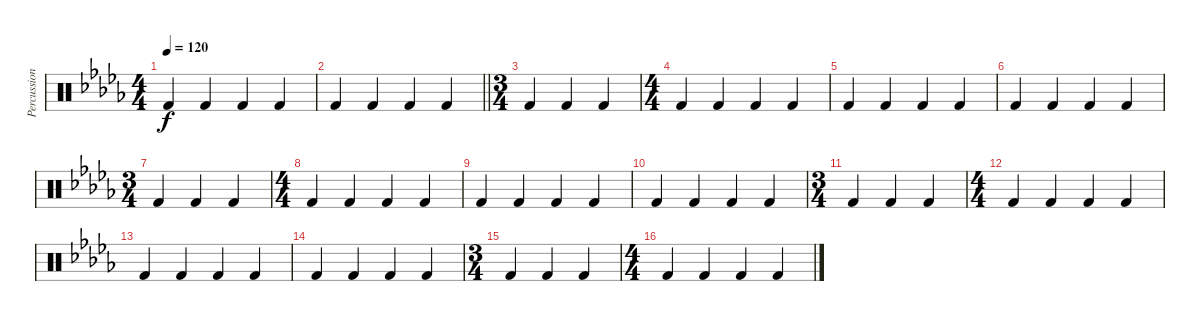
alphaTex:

\track ("Percussions" "Percussion") {instrument percussion}
\staff {score}
\articulation defaults
\ts (4 4)
\tempo 120
\clef neutral
\ks db "Kick (hit) 2".4{dy f} "Kick (hit) 2".4 "Kick (hit) 2".4 "Kick (hit) 2".4
|
\barLineRight lightlight "Kick (hit) 2".4 "Kick (hit) 2".4 "Kick (hit) 2".4 "Kick (hit) 2".4
|
\ts (3 4)
"Kick (hit) 2".4 "Kick (hit) 2".4 "Kick (hit) 2".4 |
\ts (4 4)
"Kick (hit) 2".4 "Kick (hit) 2".4 "Kick (hit) 2".4 "Kick (hit) 2".4 |
"Kick (hit) 2".4 "Kick (hit) 2".4 "Kick (hit) 2".4 "Kick (hit) 2".4 |
"Kick (hit) 2".4 "Kick (hit) 2".4 "Kick (hit) 2".4 "Kick (hit) 2".4 |
\ts (3 4)
"Kick (hit) 2".4 "Kick (hit) 2".4 "Kick (hit) 2".4 |
\ts (4 4)
"Kick (hit) 2".4 "Kick (hit) 2".4 "Kick (hit) 2".4 "Kick (hit) 2".4 |
"Kick (hit) 2".4 "Kick (hit) 2".4 "Kick (hit) 2".4 "Kick (hit) 2".4 |
"Kick (hit) 2".4 "Kick (hit) 2".4 "Kick (hit) 2".4 "Kick (hit) 2".4 |
\ts (3 4)
"Kick (hit) 2".4 "Kick (hit) 2".4 "Kick (hit) 2".4 |
\ts (4 4)
"Kick (hit) 2".4 "Kick (hit) 2".4 "Kick (hit) 2".4 "Kick (hit) 2".4 |
"Kick (hit) 2".4 "Kick (hit) 2".4 "Kick (hit) 2".4 "Kick (hit) 2".4 |
"Kick (hit) 2".4 "Kick (hit) 2".4 "Kick (hit) 2".4 "Kick (hit) 2".4 |
\ts (3 4)
"Kick (hit) 2".4 "Kick (hit) 2".4 "Kick (hit) 2".4 |
\ts (4 4)
"Kick (hit) 2".4 "Kick (hit) 2".4 "Kick (hit) 2".4 "Kick (hit) 2".4
